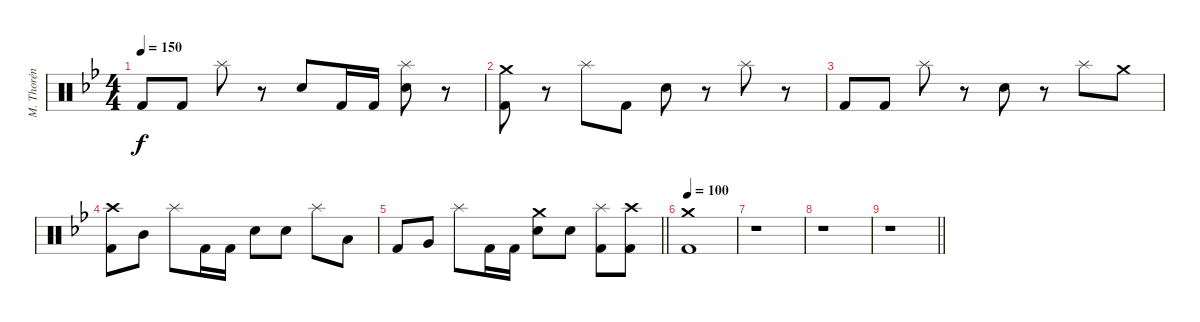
\track ("M. Thorén (Drums)" "M. Thorén ") {instrument percussion}
\staff {score}
\articulation defaults
\ts (4 4)
\tempo 150
\clef neutral
\ks gminor "Kick (hit) 2".8{dy f} "Kick (hit) 2".8 "Splash (hit)".8
r.8 "Electric Snare (hit)".8 "Kick (hit) 2".16 "Kick (hit) 2".16 ("Splash (hit)" "Electric Snare (hit)").8 r.8 |
("Crash medium (hit)" "Kick (hit) 2").8 r.8 "Splash (hit)".8 "Kick (hit) 2".8 "Electric Snare (hit)".8 r.8 "Splash (hit)".8 r.8 |
"Kick (hit) 2".8 "Kick (hit) 2".8 "Splash (hit)".8 r.8 "Electric Snare (hit)".8 r.8 "Splash (hit)".8 "Crash medium (hit)".8 |
("Crash high (hit)" "Kick (hit) 2").8 "Mid Tom (hit)".8 "Splash (hit)".8 "Kick (hit) 2".16 "Kick (hit) 2".16 "Electric Snare (hit)".8 "Electric Snare (hit)".8 "Splash (hit)".8 "Low Tom (hit)".8 |
\barLineRight lightlight "Kick (hit) 2".8 "Very Low Tom (hit)".8 "Splash (hit)".8 "Kick (hit) 2".16 "Kick (hit) 2".16
("Crash medium (hit)" "Electric Snare (hit)").8 "Electric Snare (hit)".8 ("Splash (hit)" "Kick (hit) 2").8 ("Crash high (hit)" "Kick (hit) 2").8 |
\tempo 100
("Crash medium (hit)" "Kick (hit) 2").1 |
r.1 |
r.1 |
\barLineRight lightlight
r.1
